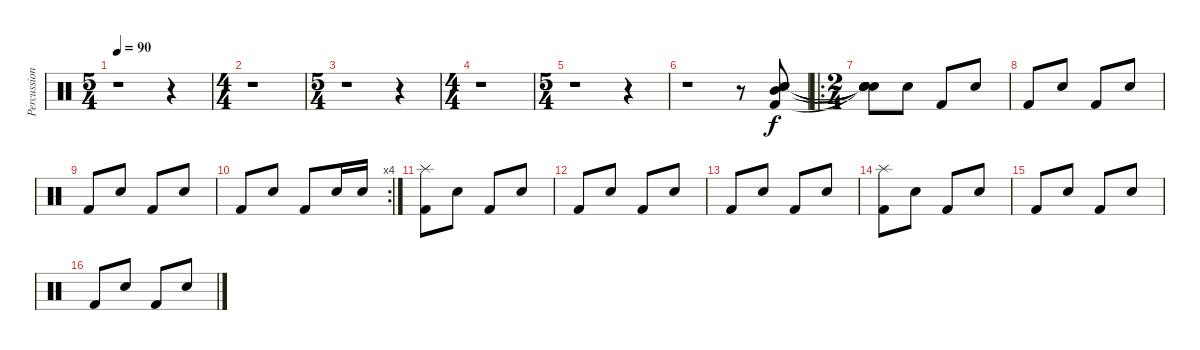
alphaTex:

\track ("Percussion" "Percussion") {instrument percussion}
\staff {score}
\articulation defaults
\ts (5 4)
\tempo 90
\clef neutral
\ks c
r.1{dy f} r.4 |
\ts (4 4)
r.1 |
\ts (5 4)
r.1 r.4 |
\ts (4 4)
r.1 |
\ts (5 4)
r.1 r.4 |
r.1 r.8 ("Mid Tom (hit)" "Electric Snare (hit)" "Snare (hit) 2" "Snare (side stick) 3" "Kick (hit) 2").8 |
\ro
\ts (2 4)
("Snare (hit)"{t} "Snare (hit)"{t} "Snare (hit)"{t} "Snare (hit)"{t} "Snare (hit)"{t}).8 "Snare (hit) 2".8 "Kick (hit) 2".8 "Snare (hit) 2".8 |
"Kick (hit) 2".8 "Snare (hit) 2".8 "Kick (hit) 2".8 "Snare (hit) 2".8 |
"Kick (hit) 2".8 "Snare (hit) 2".8 "Kick (hit) 2".8 "Snare (hit) 2".8 |
\rc 4 "Kick (hit) 2".8 "Snare (hit) 2".8 "Kick (hit) 2".8 "Snare (hit) 2".16 "Snare (hit) 2".16
|
("Splash (hit)" "Kick (hit) 2").8 "Snare (hit) 2".8 "Kick (hit) 2".8 "Snare (hit) 2".8 |
"Kick (hit) 2".8 "Snare (hit) 2".8 "Kick (hit) 2".8 "Snare (hit) 2".8 |
"Kick (hit) 2".8 "Snare (hit) 2".8 "Kick (hit) 2".8 "Snare (hit) 2".8 |
("Splash (hit)" "Kick (hit) 2").8 "Snare (hit) 2".8 "Kick (hit) 2".8 "Snare (hit) 2".8 |
"Kick (hit) 2".8 "Snare (hit) 2".8 "Kick (hit) 2".8 "Snare (hit) 2".8 |
"Kick (hit) 2".8 "Snare (hit) 2".8 "Kick (hit) 2".8 "Snare (hit) 2".8
